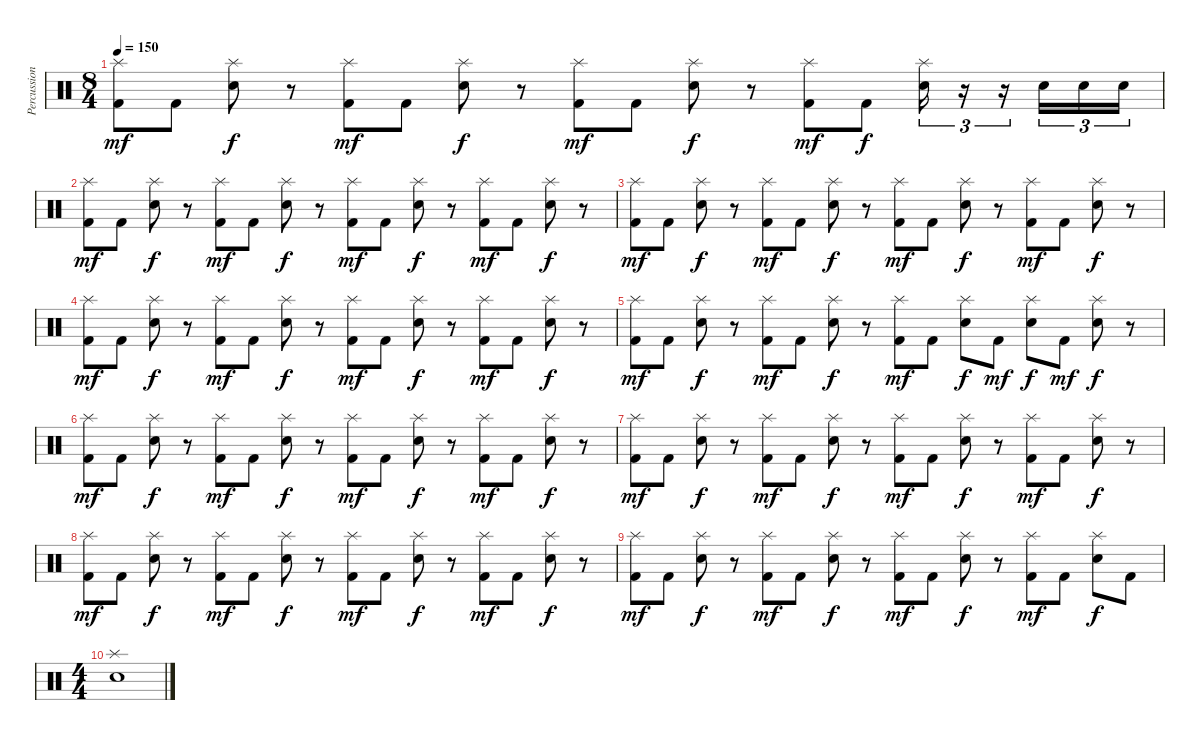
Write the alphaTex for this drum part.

\track ("Percussion" "Percussion") {instrument percussion}
\staff {score}
\articulation defaults
\ts (8 4)
\tempo 150
\clef neutral
\ks c
("Splash (hit)" "Kick (hit) 2").8{dy mf} "Kick (hit) 2".8 ("Splash (hit)" "Snare (hit) 2").8{dy f} r.8 ("Splash (hit)" "Kick (hit) 2").8{dy mf} "Kick (hit) 2".8 ("Splash (hit)" "Snare (hit) 2").8{dy f} r.8 ("Splash (hit)" "Kick (hit) 2").8{dy mf} "Kick (hit) 2".8 ("Splash (hit)" "Snare (hit) 2").8{dy f} r.8 ("Splash (hit)" "Kick (hit) 2").8{dy mf} "Kick (hit) 2".8{dy f} ("Splash (hit)" "Snare (hit) 2").16{tu (3 2)} r.16{tu (3 2)} r.16{tu (3 2)} "Snare (hit) 2".16{tu (3 2)} "Snare (hit) 2".16{tu (3 2)} "Snare (hit) 2".16{tu (3 2)} |
("Splash (hit)" "Kick (hit) 2").8{dy mf} "Kick (hit) 2".8 ("Splash (hit)" "Snare (hit) 2").8{dy f} r.8 ("Splash (hit)" "Kick (hit) 2").8{dy mf} "Kick (hit) 2".8 ("Splash (hit)" "Snare (hit) 2").8{dy f} r.8 ("Splash (hit)" "Kick (hit) 2").8{dy mf} "Kick (hit) 2".8 ("Splash (hit)" "Snare (hit) 2").8{dy f} r.8 ("Splash (hit)" "Kick (hit) 2").8{dy mf} "Kick (hit) 2".8 ("Splash (hit)" "Snare (hit) 2").8{dy f} r.8 |
("Splash (hit)" "Kick (hit) 2").8{dy mf} "Kick (hit) 2".8 ("Splash (hit)" "Snare (hit) 2").8{dy f} r.8 ("Splash (hit)" "Kick (hit) 2").8{dy mf} "Kick (hit) 2".8 ("Splash (hit)" "Snare (hit) 2").8{dy f} r.8 ("Splash (hit)" "Kick (hit) 2").8{dy mf} "Kick (hit) 2".8 ("Splash (hit)" "Snare (hit) 2").8{dy f} r.8 ("Splash (hit)" "Kick (hit) 2").8{dy mf} "Kick (hit) 2".8 ("Splash (hit)" "Snare (hit) 2").8{dy f} r.8 |
("Splash (hit)" "Kick (hit) 2").8{dy mf} "Kick (hit) 2".8 ("Splash (hit)" "Snare (hit) 2").8{dy f} r.8 ("Splash (hit)" "Kick (hit) 2").8{dy mf} "Kick (hit) 2".8 ("Splash (hit)" "Snare (hit) 2").8{dy f} r.8 ("Splash (hit)" "Kick (hit) 2").8{dy mf} "Kick (hit) 2".8 ("Splash (hit)" "Snare (hit) 2").8{dy f} r.8 ("Splash (hit)" "Kick (hit) 2").8{dy mf} "Kick (hit) 2".8 ("Splash (hit)" "Snare (hit) 2").8{dy f} r.8 |
("Splash (hit)" "Kick (hit) 2").8{dy mf} "Kick (hit) 2".8 ("Splash (hit)" "Snare (hit) 2").8{dy f} r.8 ("Splash (hit)" "Kick (hit) 2").8{dy mf} "Kick (hit) 2".8 ("Splash (hit)" "Snare (hit) 2").8{dy f} r.8 ("Splash (hit)" "Kick (hit) 2").8{dy mf} "Kick (hit) 2".8 ("Splash (hit)" "Snare (hit) 2").8{dy f} "Kick (hit) 2".8{dy mf} ("Splash (hit)" "Snare (hit) 2").8{dy f} "Kick (hit) 2".8{dy mf} ("Splash (hit)" "Snare (hit) 2").8{dy f} r.8 |
("Splash (hit)" "Kick (hit) 2").8{dy mf} "Kick (hit) 2".8 ("Splash (hit)" "Snare (hit) 2").8{dy f} r.8 ("Splash (hit)" "Kick (hit) 2").8{dy mf} "Kick (hit) 2".8 ("Splash (hit)" "Snare (hit) 2").8{dy f} r.8 ("Splash (hit)" "Kick (hit) 2").8{dy mf} "Kick (hit) 2".8 ("Splash (hit)" "Snare (hit) 2").8{dy f} r.8 ("Splash (hit)" "Kick (hit) 2").8{dy mf} "Kick (hit) 2".8 ("Splash (hit)" "Snare (hit) 2").8{dy f} r.8 |
("Splash (hit)" "Kick (hit) 2").8{dy mf} "Kick (hit) 2".8 ("Splash (hit)" "Snare (hit) 2").8{dy f} r.8 ("Splash (hit)" "Kick (hit) 2").8{dy mf} "Kick (hit) 2".8 ("Splash (hit)" "Snare (hit) 2").8{dy f} r.8 ("Splash (hit)" "Kick (hit) 2").8{dy mf} "Kick (hit) 2".8 ("Splash (hit)" "Snare (hit) 2").8{dy f} r.8 ("Splash (hit)" "Kick (hit) 2").8{dy mf} "Kick (hit) 2".8 ("Splash (hit)" "Snare (hit) 2").8{dy f} r.8 |
("Splash (hit)" "Kick (hit) 2").8{dy mf} "Kick (hit) 2".8 ("Splash (hit)" "Snare (hit) 2").8{dy f} r.8 ("Splash (hit)" "Kick (hit) 2").8{dy mf} "Kick (hit) 2".8 ("Splash (hit)" "Snare (hit) 2").8{dy f} r.8 ("Splash (hit)" "Kick (hit) 2").8{dy mf} "Kick (hit) 2".8 ("Splash (hit)" "Snare (hit) 2").8{dy f} r.8 ("Splash (hit)" "Kick (hit) 2").8{dy mf} "Kick (hit) 2".8 ("Splash (hit)" "Snare (hit) 2").8{dy f} r.8 |
("Splash (hit)" "Kick (hit) 2").8{dy mf} "Kick (hit) 2".8 ("Splash (hit)" "Snare (hit) 2").8{dy f} r.8 ("Splash (hit)" "Kick (hit) 2").8{dy mf} "Kick (hit) 2".8 ("Splash (hit)" "Snare (hit) 2").8{dy f} r.8 ("Splash (hit)" "Kick (hit) 2").8{dy mf} "Kick (hit) 2".8 ("Splash (hit)" "Snare (hit) 2").8{dy f} r.8 ("Splash (hit)" "Kick (hit) 2").8{dy mf} "Kick (hit) 2".8 ("Splash (hit)" "Snare (hit) 2").8{dy f} "Kick (hit) 2".8 |
\ts (4 4)
("Splash (hit)" "Snare (hit) 2").1
